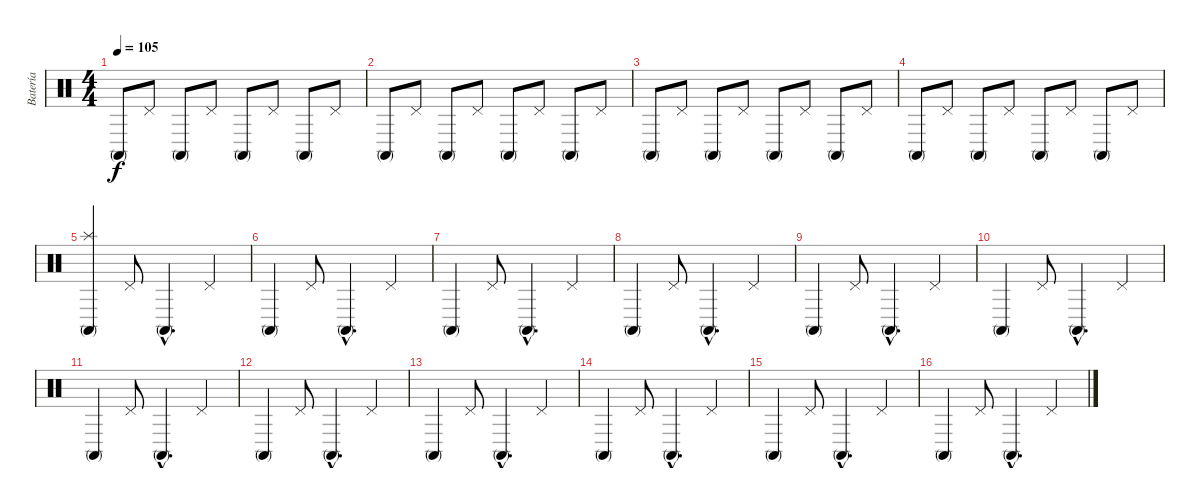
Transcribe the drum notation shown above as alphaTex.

\track ("Batería" "Batería") {instrument percussion}
\staff {score}
\articulation defaults
\ts (4 4)
\tempo 105
\clef neutral
\ks c "Conga high (mute)".8{dy f} "Pedal Hi-Hat (hit)".8 "Conga high (mute)".8 "Pedal Hi-Hat (hit)".8 "Conga high (mute)".8 "Pedal Hi-Hat (hit)".8 "Conga high (mute)".8 "Pedal Hi-Hat (hit)".8
|
"Conga high (mute)".8 "Pedal Hi-Hat (hit)".8 "Conga high (mute)".8 "Pedal Hi-Hat (hit)".8 "Conga high (mute)".8 "Pedal Hi-Hat (hit)".8 "Conga high (mute)".8 "Pedal Hi-Hat (hit)".8 |
"Conga high (mute)".8 "Pedal Hi-Hat (hit)".8 "Conga high (mute)".8 "Pedal Hi-Hat (hit)".8 "Conga high (mute)".8 "Pedal Hi-Hat (hit)".8 "Conga high (mute)".8 "Pedal Hi-Hat (hit)".8 |
"Conga high (mute)".8 "Pedal Hi-Hat (hit)".8 "Conga high (mute)".8 "Pedal Hi-Hat (hit)".8 "Conga high (mute)".8 "Pedal Hi-Hat (hit)".8 "Conga high (mute)".8 "Pedal Hi-Hat (hit)".8 |
("Splash (hit)" "Conga high (mute)").4 "Pedal Hi-Hat (hit)".8 "Conga high (mute)"{hac}.4{d} "Pedal Hi-Hat (hit)".4 |
"Conga high (mute)".4 "Pedal Hi-Hat (hit)".8 "Conga high (mute)"{hac}.4{d} "Pedal Hi-Hat (hit)".4 |
"Conga high (mute)".4 "Pedal Hi-Hat (hit)".8 "Conga high (mute)"{hac}.4{d} "Pedal Hi-Hat (hit)".4 |
"Conga high (mute)".4 "Pedal Hi-Hat (hit)".8 "Conga high (mute)"{hac}.4{d} "Pedal Hi-Hat (hit)".4 |
"Conga high (mute)".4 "Pedal Hi-Hat (hit)".8 "Conga high (mute)"{hac}.4{d} "Pedal Hi-Hat (hit)".4 |
"Conga high (mute)".4 "Pedal Hi-Hat (hit)".8 "Conga high (mute)"{hac}.4{d} "Pedal Hi-Hat (hit)".4 |
"Conga high (mute)".4 "Pedal Hi-Hat (hit)".8 "Conga high (mute)"{hac}.4{d} "Pedal Hi-Hat (hit)".4 |
"Conga high (mute)".4 "Pedal Hi-Hat (hit)".8 "Conga high (mute)"{hac}.4{d} "Pedal Hi-Hat (hit)".4 |
"Conga high (mute)".4 "Pedal Hi-Hat (hit)".8 "Conga high (mute)"{hac}.4{d} "Pedal Hi-Hat (hit)".4 |
"Conga high (mute)".4 "Pedal Hi-Hat (hit)".8 "Conga high (mute)"{hac}.4{d} "Pedal Hi-Hat (hit)".4 |
"Conga high (mute)".4 "Pedal Hi-Hat (hit)".8 "Conga high (mute)"{hac}.4{d} "Pedal Hi-Hat (hit)".4 |
"Conga high (mute)".4 "Pedal Hi-Hat (hit)".8 "Conga high (mute)"{hac}.4{d} "Pedal Hi-Hat (hit)".4
